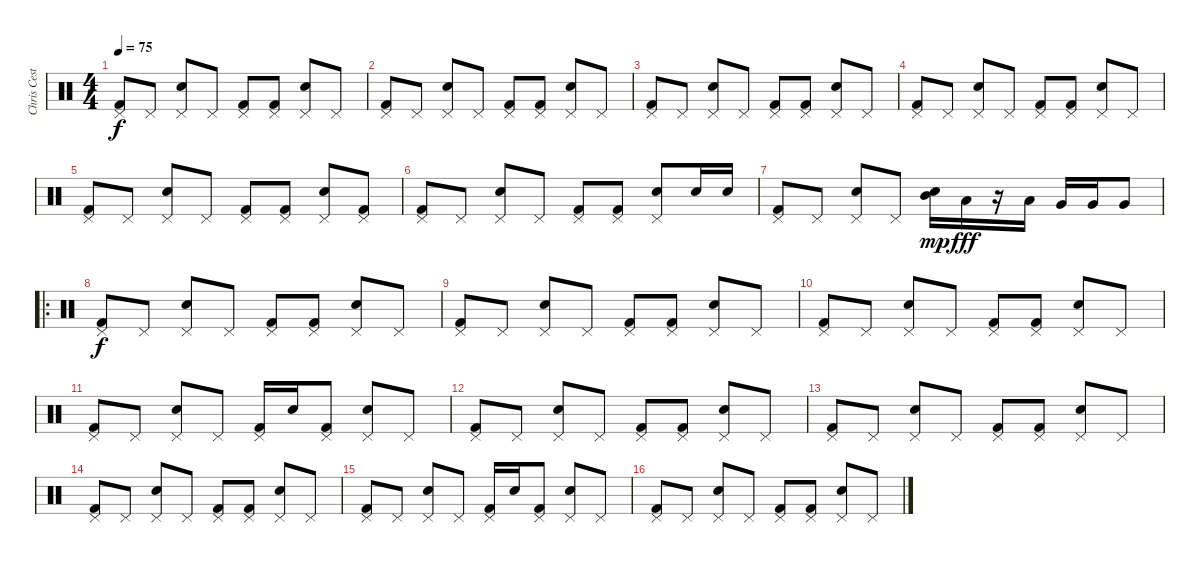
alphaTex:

\track ("Chris Cester" "Chris Cest") {instrument percussion}
\staff {score}
\articulation defaults
\ts (4 4)
\tempo 75
\clef neutral
\ks c
("Pedal Hi-Hat (hit)" "Kick (hit) 2").8{dy f} "Pedal Hi-Hat (hit)".8 ("Pedal Hi-Hat (hit)" "Snare (hit) 2").8 "Pedal Hi-Hat (hit)".8 ("Pedal Hi-Hat (hit)" "Kick (hit) 2").8 ("Pedal Hi-Hat (hit)" "Kick (hit) 2").8 ("Pedal Hi-Hat (hit)" "Snare (hit) 2").8 "Pedal Hi-Hat (hit)".8 |
("Pedal Hi-Hat (hit)" "Kick (hit) 2").8 "Pedal Hi-Hat (hit)".8 ("Pedal Hi-Hat (hit)" "Snare (hit) 2").8 "Pedal Hi-Hat (hit)".8 ("Pedal Hi-Hat (hit)" "Kick (hit) 2").8 ("Pedal Hi-Hat (hit)" "Kick (hit) 2").8 ("Pedal Hi-Hat (hit)" "Snare (hit) 2").8 "Pedal Hi-Hat (hit)".8 |
("Pedal Hi-Hat (hit)" "Kick (hit) 2").8 "Pedal Hi-Hat (hit)".8 ("Pedal Hi-Hat (hit)" "Snare (hit) 2").8 "Pedal Hi-Hat (hit)".8 ("Pedal Hi-Hat (hit)" "Kick (hit) 2").8 ("Pedal Hi-Hat (hit)" "Kick (hit) 2").8 ("Pedal Hi-Hat (hit)" "Snare (hit) 2").8 "Pedal Hi-Hat (hit)".8 |
("Pedal Hi-Hat (hit)" "Kick (hit) 2").8 "Pedal Hi-Hat (hit)".8 ("Pedal Hi-Hat (hit)" "Snare (hit) 2").8 "Pedal Hi-Hat (hit)".8 ("Pedal Hi-Hat (hit)" "Kick (hit) 2").8 ("Pedal Hi-Hat (hit)" "Kick (hit) 2").8 ("Pedal Hi-Hat (hit)" "Snare (hit) 2").8 "Pedal Hi-Hat (hit)".8 |
("Pedal Hi-Hat (hit)" "Kick (hit) 2").8 "Pedal Hi-Hat (hit)".8 ("Pedal Hi-Hat (hit)" "Snare (hit) 2").8 "Pedal Hi-Hat (hit)".8 ("Pedal Hi-Hat (hit)" "Kick (hit) 2").8 ("Pedal Hi-Hat (hit)" "Kick (hit) 2").8 ("Pedal Hi-Hat (hit)" "Snare (hit) 2").8 ("Pedal Hi-Hat (hit)" "Kick (hit) 2").8 |
("Pedal Hi-Hat (hit)" "Kick (hit) 2").8 "Pedal Hi-Hat (hit)".8 ("Pedal Hi-Hat (hit)" "Snare (hit) 2").8 "Pedal Hi-Hat (hit)".8 ("Pedal Hi-Hat (hit)" "Kick (hit) 2").8 ("Pedal Hi-Hat (hit)" "Kick (hit) 2").8 ("Pedal Hi-Hat (hit)" "Snare (hit) 2").8 "Snare (hit) 2".16 "Snare (hit) 2".16 |
("Pedal Hi-Hat (hit)" "Kick (hit) 2").8 "Pedal Hi-Hat (hit)".8 ("Pedal Hi-Hat (hit)" "Snare (hit) 2").8 "Pedal Hi-Hat (hit)".8 ("Snare (hit) 2" "Mid Tom (hit)").16{dy mp} "Low Tom (hit)".16{dy fff} r.16 "Low Tom (hit)".16 "Very Low Tom (hit)".16 "Very Low Tom (hit)".16 "Very Low Tom (hit)".8 |
\ro
("Pedal Hi-Hat (hit)" "Kick (hit) 2").8{dy f} "Pedal Hi-Hat (hit)".8 ("Pedal Hi-Hat (hit)" "Snare (hit) 2").8 "Pedal Hi-Hat (hit)".8 ("Pedal Hi-Hat (hit)" "Kick (hit) 2").8 ("Pedal Hi-Hat (hit)" "Kick (hit) 2").8 ("Pedal Hi-Hat (hit)" "Snare (hit) 2").8 "Pedal Hi-Hat (hit)".8 |
("Pedal Hi-Hat (hit)" "Kick (hit) 2").8 "Pedal Hi-Hat (hit)".8 ("Pedal Hi-Hat (hit)" "Snare (hit) 2").8 "Pedal Hi-Hat (hit)".8 ("Pedal Hi-Hat (hit)" "Kick (hit) 2").8 ("Pedal Hi-Hat (hit)" "Kick (hit) 2").8 ("Pedal Hi-Hat (hit)" "Snare (hit) 2").8 "Pedal Hi-Hat (hit)".8 |
("Pedal Hi-Hat (hit)" "Kick (hit) 2").8 "Pedal Hi-Hat (hit)".8 ("Pedal Hi-Hat (hit)" "Snare (hit) 2").8 "Pedal Hi-Hat (hit)".8 ("Pedal Hi-Hat (hit)" "Kick (hit) 2").8 ("Pedal Hi-Hat (hit)" "Kick (hit) 2").8 ("Pedal Hi-Hat (hit)" "Snare (hit) 2").8 "Pedal Hi-Hat (hit)".8 |
("Pedal Hi-Hat (hit)" "Kick (hit) 2").8 "Pedal Hi-Hat (hit)".8 ("Pedal Hi-Hat (hit)" "Snare (hit) 2").8 "Pedal Hi-Hat (hit)".8 ("Pedal Hi-Hat (hit)" "Kick (hit) 2").16 "Snare (hit) 2".16 ("Pedal Hi-Hat (hit)" "Kick (hit) 2").8 ("Pedal Hi-Hat (hit)" "Snare (hit) 2").8 "Pedal Hi-Hat (hit)".8 |
("Pedal Hi-Hat (hit)" "Kick (hit) 2").8 "Pedal Hi-Hat (hit)".8 ("Pedal Hi-Hat (hit)" "Snare (hit) 2").8 "Pedal Hi-Hat (hit)".8 ("Pedal Hi-Hat (hit)" "Kick (hit) 2").8 ("Pedal Hi-Hat (hit)" "Kick (hit) 2").8 ("Pedal Hi-Hat (hit)" "Snare (hit) 2").8 "Pedal Hi-Hat (hit)".8 |
("Pedal Hi-Hat (hit)" "Kick (hit) 2").8 "Pedal Hi-Hat (hit)".8 ("Pedal Hi-Hat (hit)" "Snare (hit) 2").8 "Pedal Hi-Hat (hit)".8 ("Pedal Hi-Hat (hit)" "Kick (hit) 2").8 ("Pedal Hi-Hat (hit)" "Kick (hit) 2").8 ("Pedal Hi-Hat (hit)" "Snare (hit) 2").8 "Pedal Hi-Hat (hit)".8 |
("Pedal Hi-Hat (hit)" "Kick (hit) 2").8 "Pedal Hi-Hat (hit)".8 ("Pedal Hi-Hat (hit)" "Snare (hit) 2").8 "Pedal Hi-Hat (hit)".8 ("Pedal Hi-Hat (hit)" "Kick (hit) 2").8 ("Pedal Hi-Hat (hit)" "Kick (hit) 2").8 ("Pedal Hi-Hat (hit)" "Snare (hit) 2").8 "Pedal Hi-Hat (hit)".8 |
("Pedal Hi-Hat (hit)" "Kick (hit) 2").8 "Pedal Hi-Hat (hit)".8 ("Pedal Hi-Hat (hit)" "Snare (hit) 2").8 "Pedal Hi-Hat (hit)".8 ("Pedal Hi-Hat (hit)" "Kick (hit) 2").16 "Snare (hit) 2".16 ("Pedal Hi-Hat (hit)" "Kick (hit) 2").8 ("Pedal Hi-Hat (hit)" "Snare (hit) 2").8 "Pedal Hi-Hat (hit)".8 |
("Pedal Hi-Hat (hit)" "Kick (hit) 2").8 "Pedal Hi-Hat (hit)".8 ("Pedal Hi-Hat (hit)" "Snare (hit) 2").8 "Pedal Hi-Hat (hit)".8 ("Pedal Hi-Hat (hit)" "Kick (hit) 2").8 ("Pedal Hi-Hat (hit)" "Kick (hit) 2").8 ("Pedal Hi-Hat (hit)" "Snare (hit) 2").8 "Pedal Hi-Hat (hit)".8
